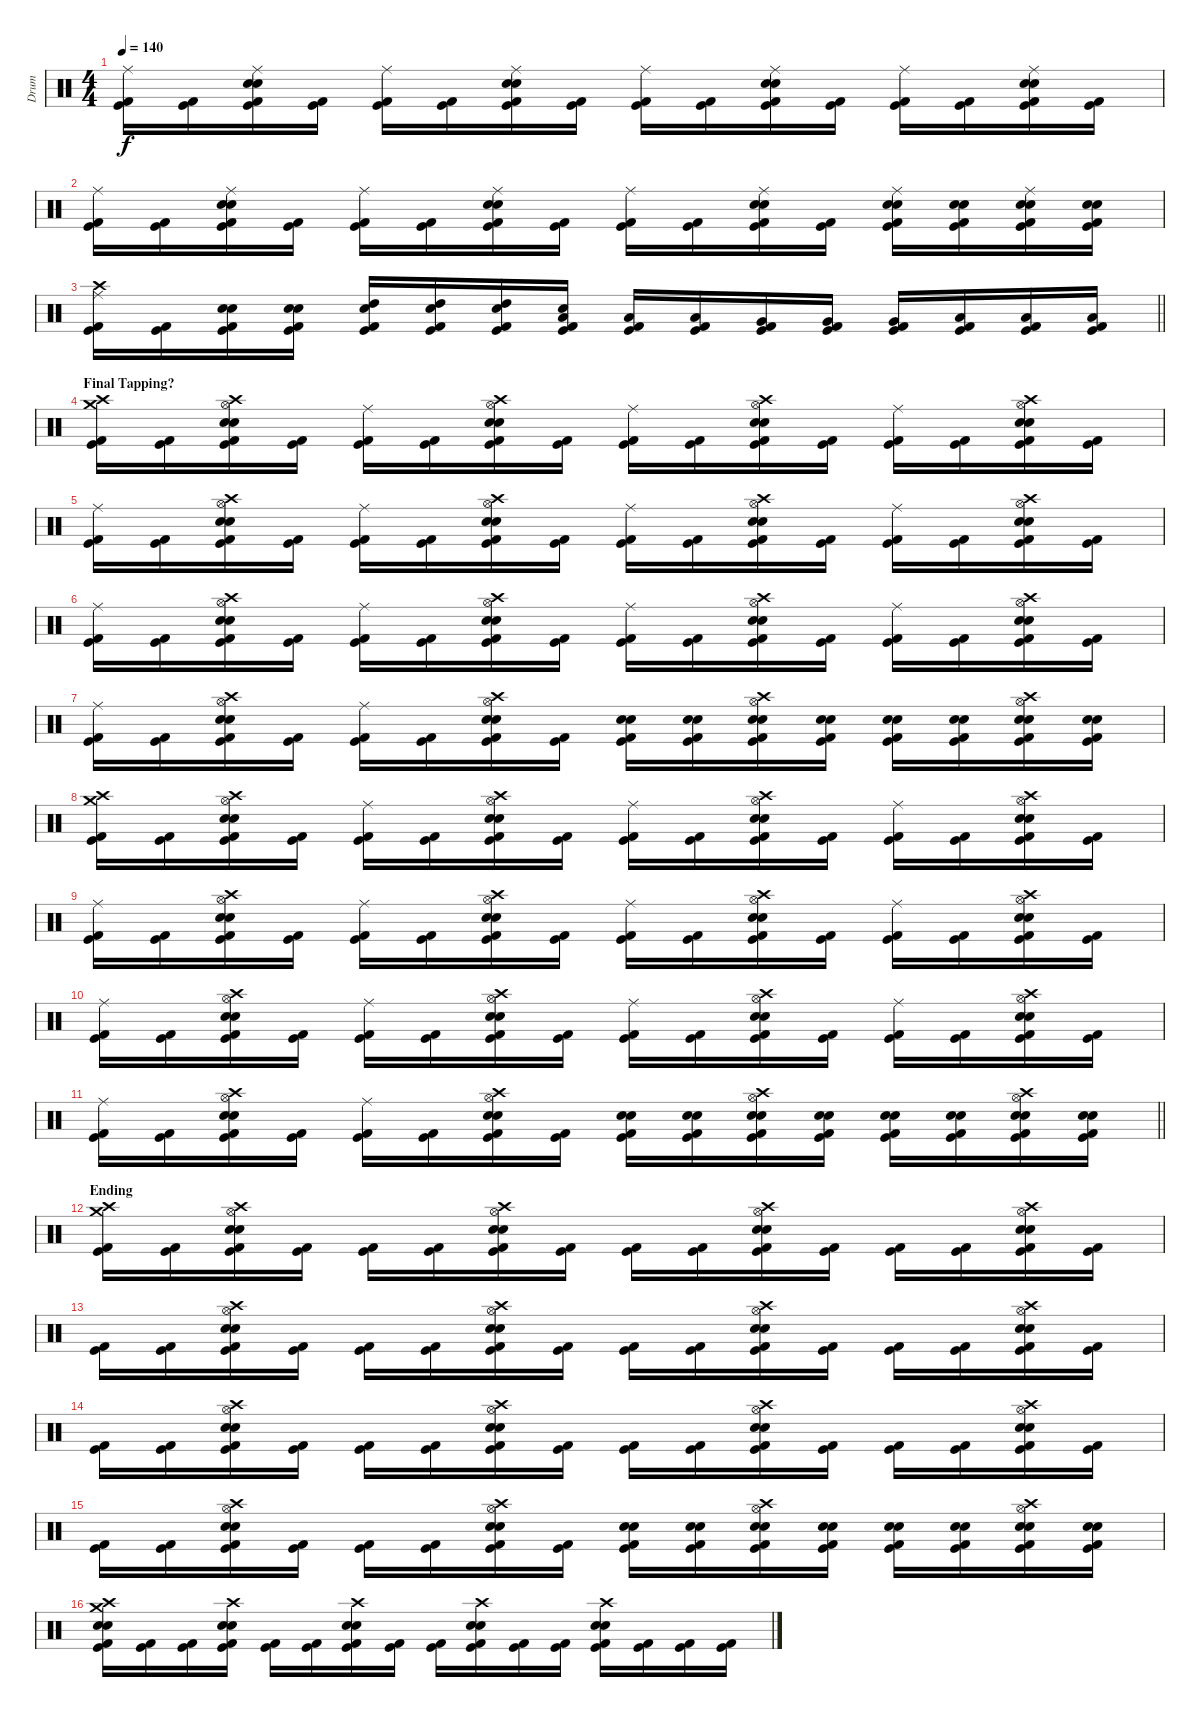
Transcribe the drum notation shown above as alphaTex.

\track ("Drum" "Drum") {instrument percussion}
\staff {score}
\articulation defaults
\ts (4 4)
\tempo 140
\clef neutral
\ks c
("Ride (middle)" "Kick (hit)" "Kick (hit) 2").16{dy f} ("Kick (hit)" "Kick (hit) 2").16 ("Ride (middle)" "Snare (hit) 2" "Electric Snare (hit)" "Kick (hit)" "Kick (hit) 2").16 ("Kick (hit)" "Kick (hit) 2").16 ("Ride (middle)" "Kick (hit)" "Kick (hit) 2").16 ("Kick (hit)" "Kick (hit) 2").16 ("Ride (middle)" "Snare (hit) 2" "Electric Snare (hit)" "Kick (hit)" "Kick (hit) 2").16 ("Kick (hit)" "Kick (hit) 2").16 ("Ride (middle)" "Kick (hit)" "Kick (hit) 2").16 ("Kick (hit)" "Kick (hit) 2").16 ("Ride (middle)" "Snare (hit) 2" "Electric Snare (hit)" "Kick (hit)" "Kick (hit) 2").16 ("Kick (hit)" "Kick (hit) 2").16 ("Ride (middle)" "Kick (hit)" "Kick (hit) 2").16 ("Kick (hit)" "Kick (hit) 2").16 ("Ride (middle)" "Snare (hit) 2" "Electric Snare (hit)" "Kick (hit)" "Kick (hit) 2").16 ("Kick (hit)" "Kick (hit) 2").16 |
("Ride (middle)" "Kick (hit)" "Kick (hit) 2").16 ("Kick (hit)" "Kick (hit) 2").16 ("Ride (middle)" "Snare (hit) 2" "Electric Snare (hit)" "Kick (hit)" "Kick (hit) 2").16 ("Kick (hit)" "Kick (hit) 2").16 ("Ride (middle)" "Kick (hit)" "Kick (hit) 2").16 ("Kick (hit)" "Kick (hit) 2").16 ("Ride (middle)" "Snare (hit) 2" "Electric Snare (hit)" "Kick (hit)" "Kick (hit) 2").16 ("Kick (hit)" "Kick (hit) 2").16 ("Ride (middle)" "Kick (hit)" "Kick (hit) 2").16 ("Kick (hit)" "Kick (hit) 2").16 ("Ride (middle)" "Snare (hit) 2" "Electric Snare (hit)" "Kick (hit)" "Kick (hit) 2").16 ("Kick (hit)" "Kick (hit) 2").16 ("Ride (middle)" "Snare (hit) 2" "Electric Snare (hit)" "Kick (hit)" "Kick (hit) 2").16 ("Snare (hit) 2" "Electric Snare (hit)" "Kick (hit)" "Kick (hit) 2").16 ("Ride (middle)" "Snare (hit) 2" "Electric Snare (hit)" "Kick (hit)" "Kick (hit) 2").16 ("Snare (hit) 2" "Electric Snare (hit)" "Kick (hit)" "Kick (hit) 2").16 |
\barLineRight lightlight
("Crash high (hit)" "Ride (middle)" "Kick (hit)" "Kick (hit) 2").16 ("Kick (hit)" "Kick (hit) 2").16 ("Snare (hit) 2" "Electric Snare (hit)" "Kick (hit)" "Kick (hit) 2").16 ("Snare (hit) 2" "Electric Snare (hit)" "Kick (hit)" "Kick (hit) 2").16 ("High Tom (hit)" "Electric Snare (hit)" "Kick (hit)" "Kick (hit) 2").16 ("High Tom (hit)" "Electric Snare (hit)" "Kick (hit)" "Kick (hit) 2").16 ("High Tom (hit)" "Electric Snare (hit)" "Kick (hit)" "Kick (hit) 2").16 ("Low Tom (hit)" "Electric Snare (hit)" "Kick (hit)" "Kick (hit) 2").16 ("Low Tom (hit)" "Kick (hit)" "Kick (hit) 2").16 ("Low Tom (hit)" "Kick (hit)" "Kick (hit) 2").16 ("Very Low Tom (hit)" "Kick (hit)" "Kick (hit) 2").16 ("Very Low Tom (hit)" "Kick (hit)" "Kick (hit) 2").16 ("Very Low Tom (hit)" "Kick (hit)" "Kick (hit) 2").16 ("Low Floor Tom (hit)" "Kick (hit)" "Kick (hit) 2").16 ("Low Floor Tom (hit)" "Kick (hit)" "Kick (hit) 2").16 ("Low Floor Tom (hit)" "Kick (hit)" "Kick (hit) 2").16 |
\section ("" "Final Tapping?")
("Crash medium (hit)" "Crash high (hit)" "Kick (hit)" "Kick (hit) 2").16 ("Kick (hit)" "Kick (hit) 2").16 ("Crash high (hit)" "Hi-Hat (open)" "Snare (hit) 2" "Electric Snare (hit)" "Kick (hit)" "Kick (hit) 2").16 ("Kick (hit)" "Kick (hit) 2").16 ("Ride (middle)" "Kick (hit)" "Kick (hit) 2").16 ("Kick (hit)" "Kick (hit) 2").16 ("Crash high (hit)" "Hi-Hat (open)" "Snare (hit) 2" "Electric Snare (hit)" "Kick (hit)" "Kick (hit) 2").16 ("Kick (hit)" "Kick (hit) 2").16 ("Ride (middle)" "Kick (hit)" "Kick (hit) 2").16 ("Kick (hit)" "Kick (hit) 2").16 ("Crash high (hit)" "Hi-Hat (open)" "Snare (hit) 2" "Electric Snare (hit)" "Kick (hit)" "Kick (hit) 2").16 ("Kick (hit)" "Kick (hit) 2").16 ("Ride (middle)" "Kick (hit)" "Kick (hit) 2").16 ("Kick (hit)" "Kick (hit) 2").16 ("Crash high (hit)" "Hi-Hat (open)" "Snare (hit) 2" "Electric Snare (hit)" "Kick (hit)" "Kick (hit) 2").16 ("Kick (hit)" "Kick (hit) 2").16 |
("Ride (middle)" "Kick (hit)" "Kick (hit) 2").16 ("Kick (hit)" "Kick (hit) 2").16 ("Crash high (hit)" "Hi-Hat (open)" "Snare (hit) 2" "Electric Snare (hit)" "Kick (hit)" "Kick (hit) 2").16 ("Kick (hit)" "Kick (hit) 2").16 ("Ride (middle)" "Kick (hit)" "Kick (hit) 2").16 ("Kick (hit)" "Kick (hit) 2").16 ("Crash high (hit)" "Hi-Hat (open)" "Snare (hit) 2" "Electric Snare (hit)" "Kick (hit)" "Kick (hit) 2").16 ("Kick (hit)" "Kick (hit) 2").16 ("Ride (middle)" "Kick (hit)" "Kick (hit) 2").16 ("Kick (hit)" "Kick (hit) 2").16 ("Crash high (hit)" "Hi-Hat (open)" "Snare (hit) 2" "Electric Snare (hit)" "Kick (hit)" "Kick (hit) 2").16 ("Kick (hit)" "Kick (hit) 2").16 ("Ride (middle)" "Kick (hit)" "Kick (hit) 2").16 ("Kick (hit)" "Kick (hit) 2").16 ("Crash high (hit)" "Hi-Hat (open)" "Snare (hit) 2" "Electric Snare (hit)" "Kick (hit)" "Kick (hit) 2").16 ("Kick (hit)" "Kick (hit) 2").16 |
("Ride (middle)" "Kick (hit)" "Kick (hit) 2").16 ("Kick (hit)" "Kick (hit) 2").16 ("Crash high (hit)" "Hi-Hat (open)" "Snare (hit) 2" "Electric Snare (hit)" "Kick (hit)" "Kick (hit) 2").16 ("Kick (hit)" "Kick (hit) 2").16 ("Ride (middle)" "Kick (hit)" "Kick (hit) 2").16 ("Kick (hit)" "Kick (hit) 2").16 ("Crash high (hit)" "Hi-Hat (open)" "Snare (hit) 2" "Electric Snare (hit)" "Kick (hit)" "Kick (hit) 2").16 ("Kick (hit)" "Kick (hit) 2").16 ("Ride (middle)" "Kick (hit)" "Kick (hit) 2").16 ("Kick (hit)" "Kick (hit) 2").16 ("Crash high (hit)" "Hi-Hat (open)" "Snare (hit) 2" "Electric Snare (hit)" "Kick (hit)" "Kick (hit) 2").16 ("Kick (hit)" "Kick (hit) 2").16 ("Ride (middle)" "Kick (hit)" "Kick (hit) 2").16 ("Kick (hit)" "Kick (hit) 2").16 ("Crash high (hit)" "Hi-Hat (open)" "Snare (hit) 2" "Electric Snare (hit)" "Kick (hit)" "Kick (hit) 2").16 ("Kick (hit)" "Kick (hit) 2").16 |
("Ride (middle)" "Kick (hit)" "Kick (hit) 2").16 ("Kick (hit)" "Kick (hit) 2").16 ("Crash high (hit)" "Hi-Hat (open)" "Snare (hit) 2" "Electric Snare (hit)" "Kick (hit)" "Kick (hit) 2").16 ("Kick (hit)" "Kick (hit) 2").16 ("Ride (middle)" "Kick (hit)" "Kick (hit) 2").16 ("Kick (hit)" "Kick (hit) 2").16 ("Crash high (hit)" "Hi-Hat (open)" "Snare (hit) 2" "Electric Snare (hit)" "Kick (hit)" "Kick (hit) 2").16 ("Kick (hit)" "Kick (hit) 2").16 ("Snare (hit) 2" "Electric Snare (hit)" "Kick (hit)" "Kick (hit) 2").16 ("Snare (hit) 2" "Electric Snare (hit)" "Kick (hit)" "Kick (hit) 2").16 ("Crash high (hit)" "Hi-Hat (open)" "Snare (hit) 2" "Electric Snare (hit)" "Kick (hit)" "Kick (hit) 2").16 ("Snare (hit) 2" "Electric Snare (hit)" "Kick (hit)" "Kick (hit) 2").16 ("Snare (hit) 2" "Electric Snare (hit)" "Kick (hit)" "Kick (hit) 2").16 ("Snare (hit) 2" "Electric Snare (hit)" "Kick (hit)" "Kick (hit) 2").16 ("Crash high (hit)" "Hi-Hat (open)" "Snare (hit) 2" "Electric Snare (hit)" "Kick (hit)" "Kick (hit) 2").16 ("Snare (hit) 2" "Electric Snare (hit)" "Kick (hit)" "Kick (hit) 2").16 |
("Crash medium (hit)" "Crash high (hit)" "Kick (hit)" "Kick (hit) 2").16 ("Kick (hit)" "Kick (hit) 2").16 ("Crash high (hit)" "Hi-Hat (open)" "Snare (hit) 2" "Electric Snare (hit)" "Kick (hit)" "Kick (hit) 2").16 ("Kick (hit)" "Kick (hit) 2").16 ("Ride (middle)" "Kick (hit)" "Kick (hit) 2").16 ("Kick (hit)" "Kick (hit) 2").16 ("Crash high (hit)" "Hi-Hat (open)" "Snare (hit) 2" "Electric Snare (hit)" "Kick (hit)" "Kick (hit) 2").16 ("Kick (hit)" "Kick (hit) 2").16 ("Ride (middle)" "Kick (hit)" "Kick (hit) 2").16 ("Kick (hit)" "Kick (hit) 2").16 ("Crash high (hit)" "Hi-Hat (open)" "Snare (hit) 2" "Electric Snare (hit)" "Kick (hit)" "Kick (hit) 2").16 ("Kick (hit)" "Kick (hit) 2").16 ("Ride (middle)" "Kick (hit)" "Kick (hit) 2").16 ("Kick (hit)" "Kick (hit) 2").16 ("Crash high (hit)" "Hi-Hat (open)" "Snare (hit) 2" "Electric Snare (hit)" "Kick (hit)" "Kick (hit) 2").16 ("Kick (hit)" "Kick (hit) 2").16 |
("Ride (middle)" "Kick (hit)" "Kick (hit) 2").16 ("Kick (hit)" "Kick (hit) 2").16 ("Crash high (hit)" "Hi-Hat (open)" "Snare (hit) 2" "Electric Snare (hit)" "Kick (hit)" "Kick (hit) 2").16 ("Kick (hit)" "Kick (hit) 2").16 ("Ride (middle)" "Kick (hit)" "Kick (hit) 2").16 ("Kick (hit)" "Kick (hit) 2").16 ("Crash high (hit)" "Hi-Hat (open)" "Snare (hit) 2" "Electric Snare (hit)" "Kick (hit)" "Kick (hit) 2").16 ("Kick (hit)" "Kick (hit) 2").16 ("Ride (middle)" "Kick (hit)" "Kick (hit) 2").16 ("Kick (hit)" "Kick (hit) 2").16 ("Crash high (hit)" "Hi-Hat (open)" "Snare (hit) 2" "Electric Snare (hit)" "Kick (hit)" "Kick (hit) 2").16 ("Kick (hit)" "Kick (hit) 2").16 ("Ride (middle)" "Kick (hit)" "Kick (hit) 2").16 ("Kick (hit)" "Kick (hit) 2").16 ("Crash high (hit)" "Hi-Hat (open)" "Snare (hit) 2" "Electric Snare (hit)" "Kick (hit)" "Kick (hit) 2").16 ("Kick (hit)" "Kick (hit) 2").16 |
("Ride (middle)" "Kick (hit)" "Kick (hit) 2").16 ("Kick (hit)" "Kick (hit) 2").16 ("Crash high (hit)" "Hi-Hat (open)" "Snare (hit) 2" "Electric Snare (hit)" "Kick (hit)" "Kick (hit) 2").16 ("Kick (hit)" "Kick (hit) 2").16 ("Ride (middle)" "Kick (hit)" "Kick (hit) 2").16 ("Kick (hit)" "Kick (hit) 2").16 ("Crash high (hit)" "Hi-Hat (open)" "Snare (hit) 2" "Electric Snare (hit)" "Kick (hit)" "Kick (hit) 2").16 ("Kick (hit)" "Kick (hit) 2").16 ("Ride (middle)" "Kick (hit)" "Kick (hit) 2").16 ("Kick (hit)" "Kick (hit) 2").16 ("Crash high (hit)" "Hi-Hat (open)" "Snare (hit) 2" "Electric Snare (hit)" "Kick (hit)" "Kick (hit) 2").16 ("Kick (hit)" "Kick (hit) 2").16 ("Ride (middle)" "Kick (hit)" "Kick (hit) 2").16 ("Kick (hit)" "Kick (hit) 2").16 ("Crash high (hit)" "Hi-Hat (open)" "Snare (hit) 2" "Electric Snare (hit)" "Kick (hit)" "Kick (hit) 2").16 ("Kick (hit)" "Kick (hit) 2").16 |
\barLineRight lightlight
("Ride (middle)" "Kick (hit)" "Kick (hit) 2").16 ("Kick (hit)" "Kick (hit) 2").16 ("Crash high (hit)" "Hi-Hat (open)" "Snare (hit) 2" "Electric Snare (hit)" "Kick (hit)" "Kick (hit) 2").16 ("Kick (hit)" "Kick (hit) 2").16 ("Ride (middle)" "Kick (hit)" "Kick (hit) 2").16 ("Kick (hit)" "Kick (hit) 2").16 ("Crash high (hit)" "Hi-Hat (open)" "Snare (hit) 2" "Electric Snare (hit)" "Kick (hit)" "Kick (hit) 2").16 ("Kick (hit)" "Kick (hit) 2").16 ("Snare (hit) 2" "Electric Snare (hit)" "Kick (hit)" "Kick (hit) 2").16 ("Snare (hit) 2" "Electric Snare (hit)" "Kick (hit)" "Kick (hit) 2").16 ("Crash high (hit)" "Hi-Hat (open)" "Snare (hit) 2" "Electric Snare (hit)" "Kick (hit)" "Kick (hit) 2").16 ("Snare (hit) 2" "Electric Snare (hit)" "Kick (hit)" "Kick (hit) 2").16 ("Snare (hit) 2" "Electric Snare (hit)" "Kick (hit)" "Kick (hit) 2").16 ("Snare (hit) 2" "Electric Snare (hit)" "Kick (hit)" "Kick (hit) 2").16 ("Crash high (hit)" "Hi-Hat (open)" "Snare (hit) 2" "Electric Snare (hit)" "Kick (hit)" "Kick (hit) 2").16 ("Snare (hit) 2" "Electric Snare (hit)" "Kick (hit)" "Kick (hit) 2").16 |
\section ("" "Ending")
("Crash medium (hit)" "Crash high (hit)" "Kick (hit)" "Kick (hit) 2").16 ("Kick (hit)" "Kick (hit) 2").16 ("Crash high (hit)" "Hi-Hat (open)" "Snare (hit) 2" "Electric Snare (hit)" "Kick (hit)" "Kick (hit) 2").16 ("Kick (hit)" "Kick (hit) 2").16 ("Kick (hit)" "Kick (hit) 2").16 ("Kick (hit)" "Kick (hit) 2").16 ("Crash high (hit)" "Hi-Hat (open)" "Snare (hit) 2" "Electric Snare (hit)" "Kick (hit)" "Kick (hit) 2").16 ("Kick (hit)" "Kick (hit) 2").16 ("Kick (hit)" "Kick (hit) 2").16 ("Kick (hit)" "Kick (hit) 2").16 ("Crash high (hit)" "Hi-Hat (open)" "Snare (hit) 2" "Electric Snare (hit)" "Kick (hit)" "Kick (hit) 2").16 ("Kick (hit)" "Kick (hit) 2").16 ("Kick (hit)" "Kick (hit) 2").16 ("Kick (hit)" "Kick (hit) 2").16 ("Crash high (hit)" "Hi-Hat (open)" "Snare (hit) 2" "Electric Snare (hit)" "Kick (hit)" "Kick (hit) 2").16 ("Kick (hit)" "Kick (hit) 2").16 |
("Kick (hit)" "Kick (hit) 2").16 ("Kick (hit)" "Kick (hit) 2").16 ("Crash high (hit)" "Hi-Hat (open)" "Snare (hit) 2" "Electric Snare (hit)" "Kick (hit)" "Kick (hit) 2").16 ("Kick (hit)" "Kick (hit) 2").16 ("Kick (hit)" "Kick (hit) 2").16 ("Kick (hit)" "Kick (hit) 2").16 ("Crash high (hit)" "Hi-Hat (open)" "Snare (hit) 2" "Electric Snare (hit)" "Kick (hit)" "Kick (hit) 2").16 ("Kick (hit)" "Kick (hit) 2").16 ("Kick (hit)" "Kick (hit) 2").16 ("Kick (hit)" "Kick (hit) 2").16 ("Crash high (hit)" "Hi-Hat (open)" "Snare (hit) 2" "Electric Snare (hit)" "Kick (hit)" "Kick (hit) 2").16 ("Kick (hit)" "Kick (hit) 2").16 ("Kick (hit)" "Kick (hit) 2").16 ("Kick (hit)" "Kick (hit) 2").16 ("Crash high (hit)" "Hi-Hat (open)" "Snare (hit) 2" "Electric Snare (hit)" "Kick (hit)" "Kick (hit) 2").16 ("Kick (hit)" "Kick (hit) 2").16 |
("Kick (hit)" "Kick (hit) 2").16 ("Kick (hit)" "Kick (hit) 2").16 ("Crash high (hit)" "Hi-Hat (open)" "Snare (hit) 2" "Electric Snare (hit)" "Kick (hit)" "Kick (hit) 2").16 ("Kick (hit)" "Kick (hit) 2").16 ("Kick (hit)" "Kick (hit) 2").16 ("Kick (hit)" "Kick (hit) 2").16 ("Crash high (hit)" "Hi-Hat (open)" "Snare (hit) 2" "Electric Snare (hit)" "Kick (hit)" "Kick (hit) 2").16 ("Kick (hit)" "Kick (hit) 2").16 ("Kick (hit)" "Kick (hit) 2").16 ("Kick (hit)" "Kick (hit) 2").16 ("Crash high (hit)" "Hi-Hat (open)" "Snare (hit) 2" "Electric Snare (hit)" "Kick (hit)" "Kick (hit) 2").16 ("Kick (hit)" "Kick (hit) 2").16 ("Kick (hit)" "Kick (hit) 2").16 ("Kick (hit)" "Kick (hit) 2").16 ("Crash high (hit)" "Hi-Hat (open)" "Snare (hit) 2" "Electric Snare (hit)" "Kick (hit)" "Kick (hit) 2").16 ("Kick (hit)" "Kick (hit) 2").16 |
("Kick (hit)" "Kick (hit) 2").16 ("Kick (hit)" "Kick (hit) 2").16 ("Crash high (hit)" "Hi-Hat (open)" "Snare (hit) 2" "Electric Snare (hit)" "Kick (hit)" "Kick (hit) 2").16 ("Kick (hit)" "Kick (hit) 2").16 ("Kick (hit)" "Kick (hit) 2").16 ("Kick (hit)" "Kick (hit) 2").16 ("Crash high (hit)" "Hi-Hat (open)" "Snare (hit) 2" "Electric Snare (hit)" "Kick (hit)" "Kick (hit) 2").16 ("Kick (hit)" "Kick (hit) 2").16 ("Snare (hit) 2" "Electric Snare (hit)" "Kick (hit)" "Kick (hit) 2").16 ("Snare (hit) 2" "Electric Snare (hit)" "Kick (hit)" "Kick (hit) 2").16 ("Crash high (hit)" "Hi-Hat (open)" "Snare (hit) 2" "Electric Snare (hit)" "Kick (hit)" "Kick (hit) 2").16 ("Snare (hit) 2" "Electric Snare (hit)" "Kick (hit)" "Kick (hit) 2").16 ("Snare (hit) 2" "Electric Snare (hit)" "Kick (hit)" "Kick (hit) 2").16 ("Snare (hit) 2" "Electric Snare (hit)" "Kick (hit)" "Kick (hit) 2").16 ("Crash high (hit)" "Hi-Hat (open)" "Snare (hit) 2" "Electric Snare (hit)" "Kick (hit)" "Kick (hit) 2").16 ("Snare (hit) 2" "Electric Snare (hit)" "Kick (hit)" "Kick (hit) 2").16 |
("Crash medium (hit)" "Crash high (hit)" "Snare (hit) 2" "Electric Snare (hit)" "Kick (hit)" "Kick (hit) 2").16 ("Kick (hit)" "Kick (hit) 2").16 ("Kick (hit)" "Kick (hit) 2").16 ("Crash high (hit)" "Snare (hit) 2" "Electric Snare (hit)" "Kick (hit)" "Kick (hit) 2").16 ("Kick (hit)" "Kick (hit) 2").16 ("Kick (hit)" "Kick (hit) 2").16 ("Crash high (hit)" "Snare (hit) 2" "Electric Snare (hit)" "Kick (hit)" "Kick (hit) 2").16 ("Kick (hit)" "Kick (hit) 2").16 ("Kick (hit)" "Kick (hit) 2").16 ("Crash high (hit)" "Snare (hit) 2" "Electric Snare (hit)" "Kick (hit)" "Kick (hit) 2").16 ("Kick (hit)" "Kick (hit) 2").16 ("Kick (hit)" "Kick (hit) 2").16 ("Crash high (hit)" "Snare (hit) 2" "Electric Snare (hit)" "Kick (hit)" "Kick (hit) 2").16 ("Kick (hit)" "Kick (hit) 2").16 ("Kick (hit)" "Kick (hit) 2").16 ("Kick (hit)" "Kick (hit) 2").16
